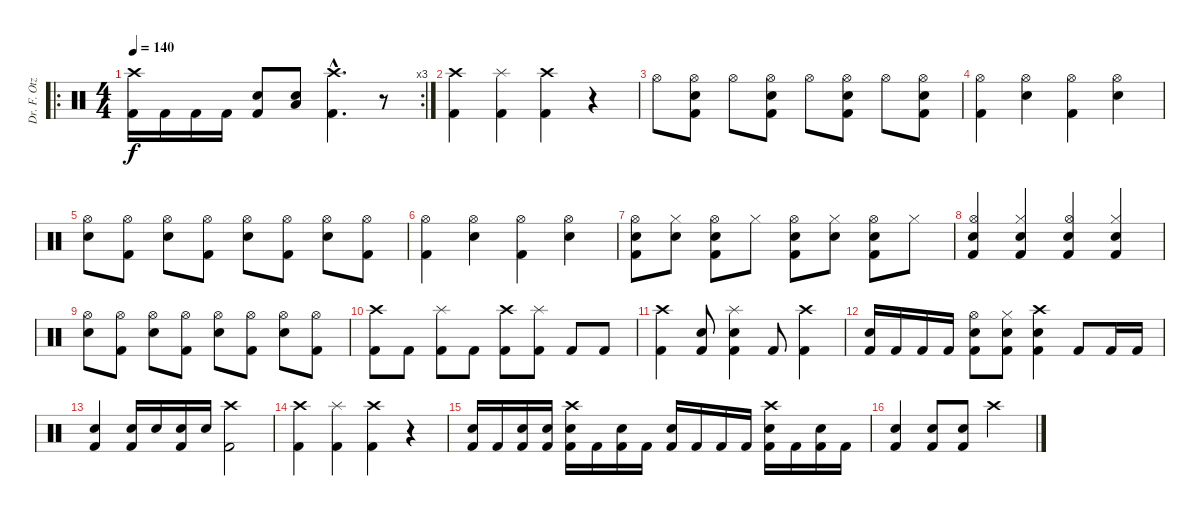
\track ("Dr. F. Otze" "Dr. F. Otz") {instrument percussion}
\staff {score}
\articulation defaults
\ro
\rc 3
\ts (4 4)
\tempo 140
\clef neutral
\ks c
("Crash high (hit)" "Kick (hit) 2").16{dy f} "Kick (hit) 2".16 "Kick (hit) 2".16 "Kick (hit) 2".16 ("Snare (hit) 2" "Kick (hit) 2").8 ("Snare (hit) 2" "Low Floor Tom (hit)").8 ("Crash high (hit)"{hac} "Kick (hit) 2"{hac}).4{d} r.8 |
("Crash high (hit)" "Kick (hit) 2").4 ("Splash (hit)" "Kick (hit) 2").4 ("Crash high (hit)" "Kick (hit) 2").4 r.4 |
"Hi-Hat (open)".8 ("Hi-Hat (open)" "Snare (hit) 2" "Kick (hit) 2").8 "Hi-Hat (open)".8 ("Hi-Hat (open)" "Snare (hit) 2" "Kick (hit) 2").8 "Hi-Hat (open)".8 ("Hi-Hat (open)" "Snare (hit) 2" "Kick (hit) 2").8 "Hi-Hat (open)".8 ("Hi-Hat (open)" "Snare (hit) 2" "Kick (hit) 2").8 |
("Hi-Hat (open)" "Kick (hit) 2").4 ("Hi-Hat (open)" "Snare (hit) 2").4 ("Hi-Hat (open)" "Kick (hit) 2").4 ("Hi-Hat (open)" "Snare (hit) 2").4 |
("Hi-Hat (open)" "Snare (hit) 2").8 ("Hi-Hat (open)" "Kick (hit) 2").8 ("Hi-Hat (open)" "Snare (hit) 2").8 ("Hi-Hat (open)" "Kick (hit) 2").8 ("Hi-Hat (open)" "Snare (hit) 2").8 ("Hi-Hat (open)" "Kick (hit) 2").8 ("Hi-Hat (open)" "Snare (hit) 2").8 ("Hi-Hat (open)" "Kick (hit) 2").8 |
("Hi-Hat (open)" "Kick (hit) 2").4 ("Hi-Hat (open)" "Snare (hit) 2").4 ("Hi-Hat (open)" "Kick (hit) 2").4 ("Hi-Hat (open)" "Snare (hit) 2").4 |
("Hi-Hat (open)" "Snare (hit) 2" "Kick (hit) 2").8 ("Hi-Hat (closed)" "Snare (hit) 2").8 ("Hi-Hat (open)" "Snare (hit) 2" "Kick (hit) 2").8 "Hi-Hat (closed)".8 ("Hi-Hat (open)" "Snare (hit) 2" "Kick (hit) 2").8 ("Hi-Hat (closed)" "Snare (hit) 2").8 ("Hi-Hat (open)" "Snare (hit) 2" "Kick (hit) 2").8 "Hi-Hat (closed)".8 |
("Hi-Hat (open)" "Electric Snare (hit)" "Kick (hit) 2").4 ("Hi-Hat (closed)" "Electric Snare (hit)" "Kick (hit) 2").4 ("Hi-Hat (open)" "Electric Snare (hit)" "Kick (hit) 2").4 ("Hi-Hat (closed)" "Electric Snare (hit)" "Kick (hit) 2").4 |
("Hi-Hat (open)" "Snare (hit) 2").8 ("Hi-Hat (open)" "Kick (hit) 2").8 ("Hi-Hat (open)" "Snare (hit) 2").8 ("Hi-Hat (open)" "Kick (hit) 2").8 ("Hi-Hat (open)" "Snare (hit) 2").8 ("Hi-Hat (open)" "Kick (hit) 2").8 ("Hi-Hat (open)" "Snare (hit) 2").8 ("Hi-Hat (open)" "Kick (hit) 2").8 |
("Crash high (hit)" "Kick (hit) 2").8 "Kick (hit) 2".8 ("Splash (hit)" "Kick (hit) 2").8 "Kick (hit) 2".8 ("Crash high (hit)" "Kick (hit) 2").8 ("Splash (hit)" "Kick (hit) 2").8 "Kick (hit) 2".8 "Kick (hit) 2".8 |
("Crash high (hit)" "Kick (hit) 2").4 ("Snare (hit) 2" "Kick (hit) 2").8 ("Splash (hit)" "Snare (hit) 2" "Kick (hit) 2").4 "Kick (hit) 2".8 ("Crash high (hit)" "Kick (hit) 2").4 |
("Snare (hit) 2" "Kick (hit) 2").16 "Kick (hit) 2".16 "Kick (hit) 2".16 "Kick (hit) 2".16 ("Hi-Hat (open)" "Snare (hit) 2" "Kick (hit) 2").8 ("Hi-Hat (closed)" "Snare (hit) 2" "Kick (hit) 2").8 ("Crash high (hit)" "Snare (hit) 2" "Kick (hit) 2").4 "Kick (hit) 2".8 "Kick (hit) 2".16 "Kick (hit) 2".16 |
("Snare (hit) 2" "Kick (hit) 2").4 ("Snare (hit) 2" "Kick (hit) 2").16 "Snare (hit) 2".16 ("Snare (hit) 2" "Kick (hit) 2").16 "Snare (hit) 2".16 ("Crash high (hit)" "Kick (hit) 2").2 |
("Crash high (hit)" "Kick (hit) 2").4 ("Splash (hit)" "Kick (hit) 2").4 ("Crash high (hit)" "Kick (hit) 2").4 r.4 |
("Snare (hit) 2" "Kick (hit) 2").16 "Kick (hit) 2".16 ("Snare (hit) 2" "Kick (hit) 2").16 ("Snare (hit) 2" "Kick (hit) 2").16 ("Crash high (hit)" "Snare (hit) 2" "Kick (hit) 2").16 "Kick (hit) 2".16 ("Snare (hit) 2" "Kick (hit) 2").16 "Kick (hit) 2".16 ("Snare (hit) 2" "Kick (hit) 2").16 "Kick (hit) 2".16 "Kick (hit) 2".16 "Kick (hit) 2".16 ("Crash high (hit)" "Snare (hit) 2" "Kick (hit) 2").16 "Kick (hit) 2".16 ("Snare (hit) 2" "Kick (hit) 2").16 "Kick (hit) 2".16 |
("Snare (hit) 2" "Kick (hit) 2").4 ("Snare (hit) 2" "Kick (hit) 2").8 ("Snare (hit) 2" "Kick (hit) 2").8 "Crash high (hit)".2
